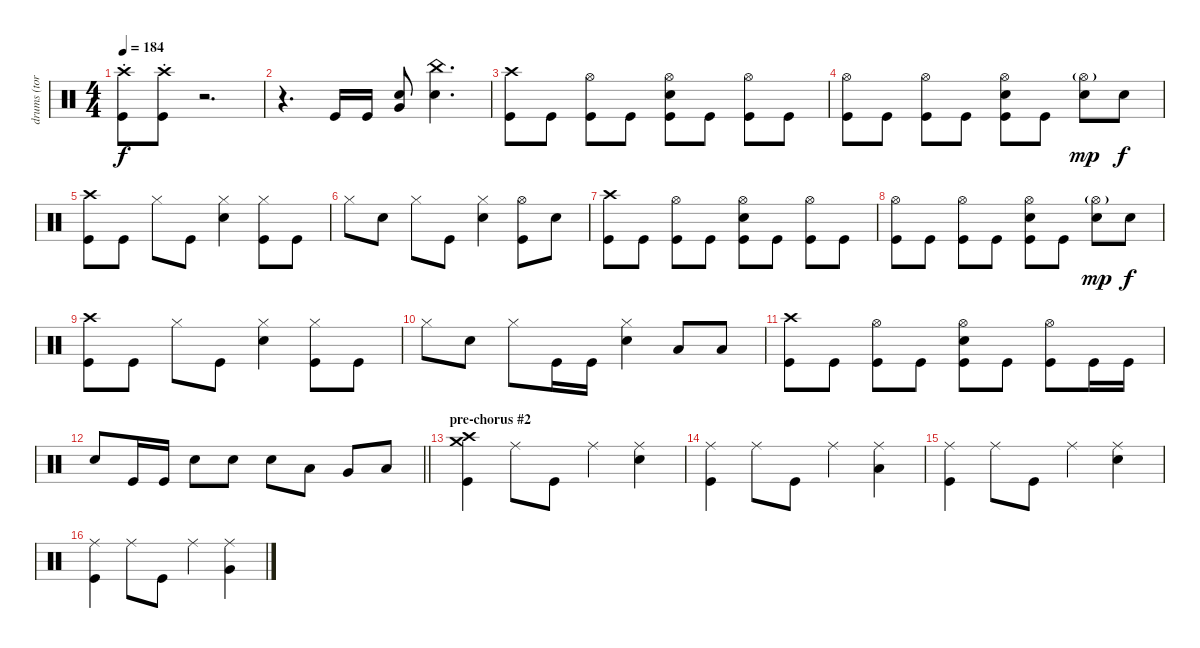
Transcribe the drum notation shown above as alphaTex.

\track ("drums (tora)" "drums (tor") {instrument percussion}
\staff {score}
\articulation defaults
\ts (4 4)
\tempo 184
\clef neutral
\ks c
("Crash high (hit)"{st} "Kick (hit)"{st}).8{dy f} ("Crash high (hit)"{st} "Kick (hit)"{st}).8 r.2{d} |
r.4{d} "Kick (hit)".16 "Kick (hit)".16 ("Snare (hit) 2" "Very Low Tom (hit)").8 ("China (hit)" "Snare (hit) 2").4{d} |
("Crash high (hit)" "Kick (hit)").8 "Kick (hit)".8 ("Hi-Hat (open)" "Kick (hit)").8 "Kick (hit)".8 ("Hi-Hat (open)" "Snare (hit) 2" "Kick (hit)").8 "Kick (hit)".8 ("Hi-Hat (open)" "Kick (hit)").8 "Kick (hit)".8 |
("Hi-Hat (open)" "Kick (hit)").8 "Kick (hit)".8 ("Hi-Hat (open)" "Kick (hit)").8 "Kick (hit)".8 ("Hi-Hat (open)" "Snare (hit) 2" "Kick (hit)").8 "Kick (hit)".8 ("Hi-Hat (open)"{g} "Snare (hit) 2").8{dy mp} "Snare (hit) 2".8{dy f} |
("Crash high (hit)" "Kick (hit)").8 "Kick (hit)".8 "Hi-Hat (closed)".8 "Kick (hit)".8 ("Hi-Hat (closed)" "Snare (hit) 2").4 ("Hi-Hat (closed)" "Kick (hit)").8 "Kick (hit)".8 |
"Hi-Hat (closed)".8 "Snare (hit) 2".8 "Hi-Hat (closed)".8 "Kick (hit)".8 ("Hi-Hat (closed)" "Snare (hit) 2").4 ("Hi-Hat (open)" "Kick (hit)").8 "Snare (hit) 2".8 |
("Crash high (hit)" "Kick (hit)").8 "Kick (hit)".8 ("Hi-Hat (open)" "Kick (hit)").8 "Kick (hit)".8 ("Hi-Hat (open)" "Snare (hit) 2" "Kick (hit)").8 "Kick (hit)".8 ("Hi-Hat (open)" "Kick (hit)").8 "Kick (hit)".8 |
("Hi-Hat (open)" "Kick (hit)").8 "Kick (hit)".8 ("Hi-Hat (open)" "Kick (hit)").8 "Kick (hit)".8 ("Hi-Hat (open)" "Snare (hit) 2" "Kick (hit)").8 "Kick (hit)".8 ("Hi-Hat (open)"{g} "Snare (hit) 2").8{dy mp} "Snare (hit) 2".8{dy f} |
("Crash high (hit)" "Kick (hit)").8 "Kick (hit)".8 "Hi-Hat (closed)".8 "Kick (hit)".8 ("Hi-Hat (closed)" "Snare (hit) 2").4 ("Hi-Hat (closed)" "Kick (hit)").8 "Kick (hit)".8 |
"Hi-Hat (closed)".8 "Snare (hit) 2".8 "Hi-Hat (closed)".8 "Kick (hit)".16 "Kick (hit)".16 ("Hi-Hat (closed)" "Snare (hit) 2").4 "Low Tom (hit)".8 "Low Tom (hit)".8 |
("Crash high (hit)" "Kick (hit)").8 "Kick (hit)".8 ("Hi-Hat (open)" "Kick (hit)").8 "Kick (hit)".8 ("Hi-Hat (open)" "Snare (hit) 2" "Kick (hit)").8 "Kick (hit)".8 ("Hi-Hat (open)" "Kick (hit)").8 "Kick (hit)".16 "Kick (hit)".16 |
\barLineRight lightlight "Snare (hit) 2".8 "Kick (hit)".16 "Kick (hit)".16 "Snare (hit) 2".8 "Snare (hit) 2".8 "Snare (hit) 2".8 "Low Tom (hit)".8 "Very Low Tom (hit)".8 "Low Floor Tom (hit)".8
|
\section ("" "pre-chorus #2")
("Crash high (hit)" "Crash medium (hit)" "Kick (hit)").4 "Ride (middle)".8 "Kick (hit)".8 "Ride (middle)".4 ("Ride (middle)" "Snare (hit) 2").4 |
("Ride (middle)" "Kick (hit)").4 "Ride (middle)".8 "Kick (hit)".8 "Ride (middle)".4 ("Ride (middle)" "Low Tom (hit)").4 |
("Ride (middle)" "Kick (hit)").4 "Ride (middle)".8 "Kick (hit)".8 "Ride (middle)".4 ("Ride (middle)" "Snare (hit) 2").4 |
("Ride (middle)" "Kick (hit)").4 "Ride (middle)".8 "Kick (hit)".8 "Ride (middle)".4 ("Ride (middle)" "Very Low Tom (hit)").4
